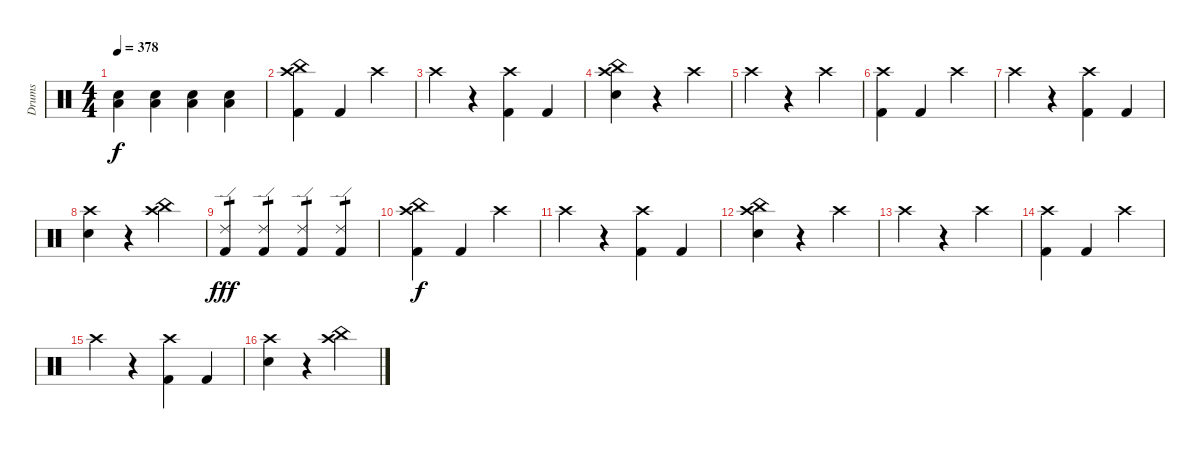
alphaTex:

\track ("Drums" "Drums") {instrument percussion}
\staff {score}
\articulation defaults
\ts (4 4)
\tempo 378
\clef neutral
\ks c
("Low Floor Tom (hit)" "Electric Snare (hit)").4{dy f} ("Low Floor Tom (hit)" "Electric Snare (hit)").4 ("Low Floor Tom (hit)" "Electric Snare (hit)").4 ("Low Floor Tom (hit)" "Electric Snare (hit)").4 |
("China (hit)" "Crash high (hit)" "Kick (hit) 2").4 "Kick (hit) 2".4 "Crash high (hit)".4 |
"Crash high (hit)".4 r.4 ("Crash high (hit)" "Kick (hit) 2").4 "Kick (hit) 2".4 |
("China (hit)" "Crash high (hit)" "Electric Snare (hit)").4 r.4 "Crash high (hit)".4 |
"Crash high (hit)".4 r.4 "Crash high (hit)".4 |
("Crash high (hit)" "Kick (hit) 2").4 "Kick (hit) 2".4 "Crash high (hit)".4 |
"Crash high (hit)".4 r.4 ("Crash high (hit)" "Kick (hit) 2").4 "Kick (hit) 2".4 |
("Crash high (hit)" "Electric Snare (hit)").4 r.4 ("China (hit)" "Crash high (hit)").4 |
("Ride (edge) 2" "Kick (hit) 2").4{tp 1 dy fff} ("Ride (edge) 2" "Kick (hit) 2").4{tp 1} ("Ride (edge) 2" "Kick (hit) 2").4{tp 1} ("Ride (edge) 2" "Kick (hit) 2").4{tp 1} |
("China (hit)" "Crash high (hit)" "Kick (hit) 2").4{dy f} "Kick (hit) 2".4 "Crash high (hit)".4 |
"Crash high (hit)".4 r.4 ("Crash high (hit)" "Kick (hit) 2").4 "Kick (hit) 2".4 |
("China (hit)" "Crash high (hit)" "Electric Snare (hit)").4 r.4 "Crash high (hit)".4 |
"Crash high (hit)".4 r.4 "Crash high (hit)".4 |
("Crash high (hit)" "Kick (hit) 2").4 "Kick (hit) 2".4 "Crash high (hit)".4 |
"Crash high (hit)".4 r.4 ("Crash high (hit)" "Kick (hit) 2").4 "Kick (hit) 2".4 |
("Crash high (hit)" "Electric Snare (hit)").4 r.4 ("China (hit)" "Crash high (hit)").4
